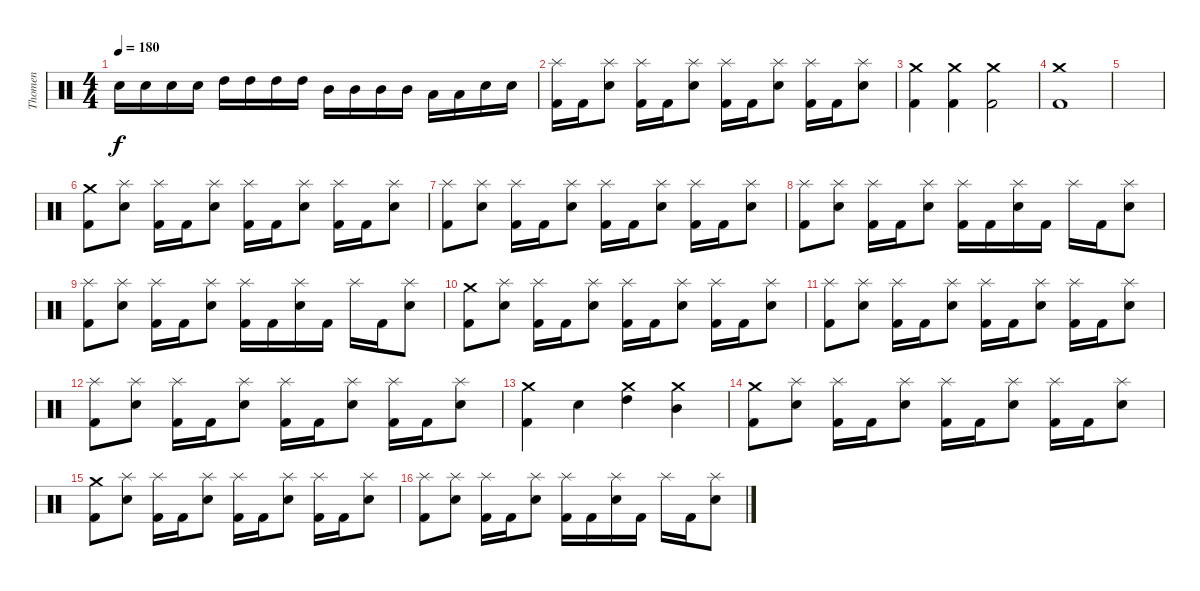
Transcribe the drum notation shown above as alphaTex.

\track ("Thomen" "Thomen") {instrument percussion}
\staff {score}
\articulation defaults
\ts (4 4)
\tempo 180
\clef neutral
\ks c "Electric Snare (hit)".16{dy f} "Electric Snare (hit)".16 "Electric Snare (hit)".16 "Electric Snare (hit)".16 "High Tom (hit)".16 "High Tom (hit)".16 "High Tom (hit)".16 "High Tom (hit)".16 "Mid Tom (hit)".16 "Mid Tom (hit)".16 "Mid Tom (hit)".16 "Mid Tom (hit)".16 "Low Tom (hit)".16 "Low Tom (hit)".16 "Electric Snare (hit)".16 "Electric Snare (hit)".16
|
("Splash (hit)" "Kick (hit) 2").16 "Kick (hit) 2".16 ("Splash (hit)" "Electric Snare (hit)").8 ("Splash (hit)" "Kick (hit) 2").16 "Kick (hit) 2".16 ("Splash (hit)" "Electric Snare (hit)").8 ("Splash (hit)" "Kick (hit) 2").16 "Kick (hit) 2".16 ("Splash (hit)" "Electric Snare (hit)").8 ("Splash (hit)" "Kick (hit) 2").16 "Kick (hit) 2".16 ("Splash (hit)" "Electric Snare (hit)").8 |
("Crash medium (hit)" "Kick (hit) 2").4 ("Crash medium (hit)" "Kick (hit) 2").4 ("Crash medium (hit)" "Kick (hit) 2").2 |
("Crash medium (hit)" "Kick (hit) 2").1 |
|
("Crash medium (hit)" "Kick (hit) 2").8 ("Splash (hit)" "Electric Snare (hit)").8 ("Splash (hit)" "Kick (hit) 2").16 "Kick (hit) 2".16 ("Splash (hit)" "Electric Snare (hit)").8 ("Splash (hit)" "Kick (hit) 2").16 "Kick (hit) 2".16 ("Splash (hit)" "Electric Snare (hit)").8 ("Splash (hit)" "Kick (hit) 2").16 "Kick (hit) 2".16 ("Splash (hit)" "Electric Snare (hit)").8 |
("Splash (hit)" "Kick (hit) 2").8 ("Splash (hit)" "Electric Snare (hit)").8 ("Splash (hit)" "Kick (hit) 2").16 "Kick (hit) 2".16 ("Splash (hit)" "Electric Snare (hit)").8 ("Splash (hit)" "Kick (hit) 2").16 "Kick (hit) 2".16 ("Splash (hit)" "Electric Snare (hit)").8 ("Splash (hit)" "Kick (hit) 2").16 "Kick (hit) 2".16 ("Splash (hit)" "Electric Snare (hit)").8 |
("Splash (hit)" "Kick (hit) 2").8 ("Splash (hit)" "Electric Snare (hit)").8 ("Splash (hit)" "Kick (hit) 2").16 "Kick (hit) 2".16 ("Splash (hit)" "Electric Snare (hit)").8 ("Splash (hit)" "Kick (hit) 2").16 "Kick (hit) 2".16 ("Splash (hit)" "Electric Snare (hit)").16 "Kick (hit) 2".16 "Splash (hit)".16 "Kick (hit) 2".16 ("Splash (hit)" "Electric Snare (hit)").8 |
("Splash (hit)" "Kick (hit) 2").8 ("Splash (hit)" "Electric Snare (hit)").8 ("Splash (hit)" "Kick (hit) 2").16 "Kick (hit) 2".16 ("Splash (hit)" "Electric Snare (hit)").8 ("Splash (hit)" "Kick (hit) 2").16 "Kick (hit) 2".16 ("Splash (hit)" "Electric Snare (hit)").16 "Kick (hit) 2".16 "Splash (hit)".16 "Kick (hit) 2".16 ("Splash (hit)" "Electric Snare (hit)").8 |
("Crash medium (hit)" "Kick (hit) 2").8 ("Splash (hit)" "Electric Snare (hit)").8 ("Splash (hit)" "Kick (hit) 2").16 "Kick (hit) 2".16 ("Splash (hit)" "Electric Snare (hit)").8 ("Splash (hit)" "Kick (hit) 2").16 "Kick (hit) 2".16 ("Splash (hit)" "Electric Snare (hit)").8 ("Splash (hit)" "Kick (hit) 2").16 "Kick (hit) 2".16 ("Splash (hit)" "Electric Snare (hit)").8 |
("Splash (hit)" "Kick (hit) 2").8 ("Splash (hit)" "Electric Snare (hit)").8 ("Splash (hit)" "Kick (hit) 2").16 "Kick (hit) 2".16 ("Splash (hit)" "Electric Snare (hit)").8 ("Splash (hit)" "Kick (hit) 2").16 "Kick (hit) 2".16 ("Splash (hit)" "Electric Snare (hit)").8 ("Splash (hit)" "Kick (hit) 2").16 "Kick (hit) 2".16 ("Splash (hit)" "Electric Snare (hit)").8 |
("Splash (hit)" "Kick (hit) 2").8 ("Splash (hit)" "Electric Snare (hit)").8 ("Splash (hit)" "Kick (hit) 2").16 "Kick (hit) 2".16 ("Splash (hit)" "Electric Snare (hit)").8 ("Splash (hit)" "Kick (hit) 2").16 "Kick (hit) 2".16 ("Splash (hit)" "Electric Snare (hit)").8 ("Splash (hit)" "Kick (hit) 2").16 "Kick (hit) 2".16 ("Splash (hit)" "Electric Snare (hit)").8 |
("Crash medium (hit)" "Kick (hit) 2").4 "Electric Snare (hit)".4 ("Crash medium (hit)" "High Tom (hit)").4 ("Crash medium (hit)" "Mid Tom (hit)").4 |
("Crash medium (hit)" "Kick (hit) 2").8 ("Splash (hit)" "Electric Snare (hit)").8 ("Splash (hit)" "Kick (hit) 2").16 "Kick (hit) 2".16 ("Splash (hit)" "Electric Snare (hit)").8 ("Splash (hit)" "Kick (hit) 2").16 "Kick (hit) 2".16 ("Splash (hit)" "Electric Snare (hit)").8 ("Splash (hit)" "Kick (hit) 2").16 "Kick (hit) 2".16 ("Splash (hit)" "Electric Snare (hit)").8 |
("Crash medium (hit)" "Kick (hit) 2").8 ("Splash (hit)" "Electric Snare (hit)").8 ("Splash (hit)" "Kick (hit) 2").16 "Kick (hit) 2".16 ("Splash (hit)" "Electric Snare (hit)").8 ("Splash (hit)" "Kick (hit) 2").16 "Kick (hit) 2".16 ("Splash (hit)" "Electric Snare (hit)").8 ("Splash (hit)" "Kick (hit) 2").16 "Kick (hit) 2".16 ("Splash (hit)" "Electric Snare (hit)").8 |
("Splash (hit)" "Kick (hit) 2").8 ("Splash (hit)" "Electric Snare (hit)").8 ("Splash (hit)" "Kick (hit) 2").16 "Kick (hit) 2".16 ("Splash (hit)" "Electric Snare (hit)").8 ("Splash (hit)" "Kick (hit) 2").16 "Kick (hit) 2".16 ("Splash (hit)" "Electric Snare (hit)").16 "Kick (hit) 2".16 "Splash (hit)".16 "Kick (hit) 2".16 ("Splash (hit)" "Electric Snare (hit)").8
